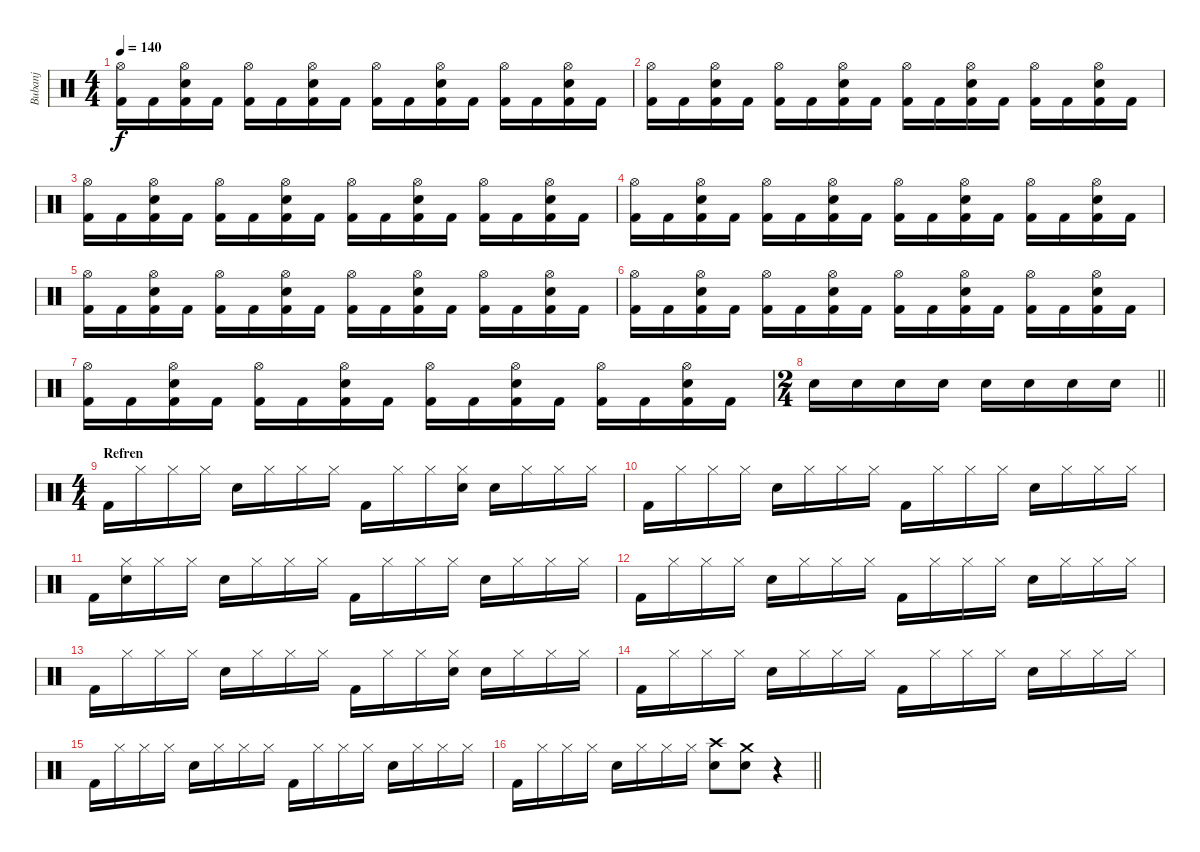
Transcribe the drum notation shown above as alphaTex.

\track ("Bubanj" "Bubanj") {instrument percussion}
\staff {score}
\articulation defaults
\ts (4 4)
\tempo 140
\clef neutral
\ks c
("Kick (hit) 2" "Hi-Hat (open)").16{dy f} "Kick (hit) 2".16 ("Kick (hit) 2" "Snare (hit) 2" "Hi-Hat (open)").16 "Kick (hit) 2".16 ("Kick (hit) 2" "Hi-Hat (open)").16 "Kick (hit) 2".16 ("Kick (hit) 2" "Snare (hit) 2" "Hi-Hat (open)").16 "Kick (hit) 2".16 ("Kick (hit) 2" "Hi-Hat (open)").16 "Kick (hit) 2".16 ("Kick (hit) 2" "Snare (hit) 2" "Hi-Hat (open)").16 "Kick (hit) 2".16 ("Kick (hit) 2" "Hi-Hat (open)").16 "Kick (hit) 2".16 ("Kick (hit) 2" "Snare (hit) 2" "Hi-Hat (open)").16 "Kick (hit) 2".16 |
("Kick (hit) 2" "Hi-Hat (open)").16 "Kick (hit) 2".16 ("Kick (hit) 2" "Snare (hit) 2" "Hi-Hat (open)").16 "Kick (hit) 2".16 ("Kick (hit) 2" "Hi-Hat (open)").16 "Kick (hit) 2".16 ("Kick (hit) 2" "Snare (hit) 2" "Hi-Hat (open)").16 "Kick (hit) 2".16 ("Kick (hit) 2" "Hi-Hat (open)").16 "Kick (hit) 2".16 ("Kick (hit) 2" "Snare (hit) 2" "Hi-Hat (open)").16 "Kick (hit) 2".16 ("Kick (hit) 2" "Hi-Hat (open)").16 "Kick (hit) 2".16 ("Kick (hit) 2" "Snare (hit) 2" "Hi-Hat (open)").16 "Kick (hit) 2".16 |
("Kick (hit) 2" "Hi-Hat (open)").16 "Kick (hit) 2".16 ("Kick (hit) 2" "Snare (hit) 2" "Hi-Hat (open)").16 "Kick (hit) 2".16 ("Kick (hit) 2" "Hi-Hat (open)").16 "Kick (hit) 2".16 ("Kick (hit) 2" "Snare (hit) 2" "Hi-Hat (open)").16 "Kick (hit) 2".16 ("Kick (hit) 2" "Hi-Hat (open)").16 "Kick (hit) 2".16 ("Kick (hit) 2" "Snare (hit) 2" "Hi-Hat (open)").16 "Kick (hit) 2".16 ("Kick (hit) 2" "Hi-Hat (open)").16 "Kick (hit) 2".16 ("Kick (hit) 2" "Snare (hit) 2" "Hi-Hat (open)").16 "Kick (hit) 2".16 |
("Kick (hit) 2" "Hi-Hat (open)").16 "Kick (hit) 2".16 ("Kick (hit) 2" "Snare (hit) 2" "Hi-Hat (open)").16 "Kick (hit) 2".16 ("Kick (hit) 2" "Hi-Hat (open)").16 "Kick (hit) 2".16 ("Kick (hit) 2" "Snare (hit) 2" "Hi-Hat (open)").16 "Kick (hit) 2".16 ("Kick (hit) 2" "Hi-Hat (open)").16 "Kick (hit) 2".16 ("Kick (hit) 2" "Snare (hit) 2" "Hi-Hat (open)").16 "Kick (hit) 2".16 ("Kick (hit) 2" "Hi-Hat (open)").16 "Kick (hit) 2".16 ("Kick (hit) 2" "Snare (hit) 2" "Hi-Hat (open)").16 "Kick (hit) 2".16 |
("Kick (hit) 2" "Hi-Hat (open)").16 "Kick (hit) 2".16 ("Kick (hit) 2" "Snare (hit) 2" "Hi-Hat (open)").16 "Kick (hit) 2".16 ("Kick (hit) 2" "Hi-Hat (open)").16 "Kick (hit) 2".16 ("Kick (hit) 2" "Snare (hit) 2" "Hi-Hat (open)").16 "Kick (hit) 2".16 ("Kick (hit) 2" "Hi-Hat (open)").16 "Kick (hit) 2".16 ("Kick (hit) 2" "Snare (hit) 2" "Hi-Hat (open)").16 "Kick (hit) 2".16 ("Kick (hit) 2" "Hi-Hat (open)").16 "Kick (hit) 2".16 ("Kick (hit) 2" "Snare (hit) 2" "Hi-Hat (open)").16 "Kick (hit) 2".16 |
("Kick (hit) 2" "Hi-Hat (open)").16 "Kick (hit) 2".16 ("Kick (hit) 2" "Snare (hit) 2" "Hi-Hat (open)").16 "Kick (hit) 2".16 ("Kick (hit) 2" "Hi-Hat (open)").16 "Kick (hit) 2".16 ("Kick (hit) 2" "Snare (hit) 2" "Hi-Hat (open)").16 "Kick (hit) 2".16 ("Kick (hit) 2" "Hi-Hat (open)").16 "Kick (hit) 2".16 ("Kick (hit) 2" "Snare (hit) 2" "Hi-Hat (open)").16 "Kick (hit) 2".16 ("Kick (hit) 2" "Hi-Hat (open)").16 "Kick (hit) 2".16 ("Kick (hit) 2" "Snare (hit) 2" "Hi-Hat (open)").16 "Kick (hit) 2".16 |
("Kick (hit) 2" "Hi-Hat (open)").16 "Kick (hit) 2".16 ("Kick (hit) 2" "Snare (hit) 2" "Hi-Hat (open)").16 "Kick (hit) 2".16 ("Kick (hit) 2" "Hi-Hat (open)").16 "Kick (hit) 2".16 ("Kick (hit) 2" "Snare (hit) 2" "Hi-Hat (open)").16 "Kick (hit) 2".16 ("Kick (hit) 2" "Hi-Hat (open)").16 "Kick (hit) 2".16 ("Kick (hit) 2" "Snare (hit) 2" "Hi-Hat (open)").16 "Kick (hit) 2".16 ("Kick (hit) 2" "Hi-Hat (open)").16 "Kick (hit) 2".16 ("Kick (hit) 2" "Snare (hit) 2" "Hi-Hat (open)").16 "Kick (hit) 2".16 |
\ts (2 4)
\barLineRight lightlight "Snare (hit) 2".16 "Snare (hit) 2".16 "Snare (hit) 2".16 "Snare (hit) 2".16 "Snare (hit) 2".16 "Snare (hit) 2".16 "Snare (hit) 2".16 "Snare (hit) 2".16
|
\ts (4 4)
\section ("" "Refren")
"Kick (hit) 2".16 "Hi-Hat (closed)".16 "Hi-Hat (closed)".16 "Hi-Hat (closed)".16 "Snare (hit) 2".16 "Hi-Hat (closed)".16 "Hi-Hat (closed)".16 "Hi-Hat (closed)".16 "Kick (hit) 2".16 "Hi-Hat (closed)".16 "Hi-Hat (closed)".16 ("Snare (hit) 2" "Hi-Hat (closed)").16 "Snare (hit) 2".16 "Hi-Hat (closed)".16 "Hi-Hat (closed)".16 "Hi-Hat (closed)".16 |
"Kick (hit) 2".16 "Hi-Hat (closed)".16 "Hi-Hat (closed)".16 "Hi-Hat (closed)".16 "Snare (hit) 2".16 "Hi-Hat (closed)".16 "Hi-Hat (closed)".16 "Hi-Hat (closed)".16 "Kick (hit) 2".16 "Hi-Hat (closed)".16 "Hi-Hat (closed)".16 "Hi-Hat (closed)".16 "Snare (hit) 2".16 "Hi-Hat (closed)".16 "Hi-Hat (closed)".16 "Hi-Hat (closed)".16 |
"Kick (hit) 2".16 ("Snare (hit) 2" "Hi-Hat (closed)").16 "Hi-Hat (closed)".16 "Hi-Hat (closed)".16 "Snare (hit) 2".16 "Hi-Hat (closed)".16 "Hi-Hat (closed)".16 "Hi-Hat (closed)".16 "Kick (hit) 2".16 "Hi-Hat (closed)".16 "Hi-Hat (closed)".16 "Hi-Hat (closed)".16 "Snare (hit) 2".16 "Hi-Hat (closed)".16 "Hi-Hat (closed)".16 "Hi-Hat (closed)".16 |
"Kick (hit) 2".16 "Hi-Hat (closed)".16 "Hi-Hat (closed)".16 "Hi-Hat (closed)".16 "Snare (hit) 2".16 "Hi-Hat (closed)".16 "Hi-Hat (closed)".16 "Hi-Hat (closed)".16 "Kick (hit) 2".16 "Hi-Hat (closed)".16 "Hi-Hat (closed)".16 "Hi-Hat (closed)".16 "Snare (hit) 2".16 "Hi-Hat (closed)".16 "Hi-Hat (closed)".16 "Hi-Hat (closed)".16 |
"Kick (hit) 2".16 "Hi-Hat (closed)".16 "Hi-Hat (closed)".16 "Hi-Hat (closed)".16 "Snare (hit) 2".16 "Hi-Hat (closed)".16 "Hi-Hat (closed)".16 "Hi-Hat (closed)".16 "Kick (hit) 2".16 "Hi-Hat (closed)".16 "Hi-Hat (closed)".16 ("Snare (hit) 2" "Hi-Hat (closed)").16 "Snare (hit) 2".16 "Hi-Hat (closed)".16 "Hi-Hat (closed)".16 "Hi-Hat (closed)".16 |
"Kick (hit) 2".16 "Hi-Hat (closed)".16 "Hi-Hat (closed)".16 "Hi-Hat (closed)".16 "Snare (hit) 2".16 "Hi-Hat (closed)".16 "Hi-Hat (closed)".16 "Hi-Hat (closed)".16 "Kick (hit) 2".16 "Hi-Hat (closed)".16 "Hi-Hat (closed)".16 "Hi-Hat (closed)".16 "Snare (hit) 2".16 "Hi-Hat (closed)".16 "Hi-Hat (closed)".16 "Hi-Hat (closed)".16 |
"Kick (hit) 2".16 "Hi-Hat (closed)".16 "Hi-Hat (closed)".16 "Hi-Hat (closed)".16 "Snare (hit) 2".16 "Hi-Hat (closed)".16 "Hi-Hat (closed)".16 "Hi-Hat (closed)".16 "Kick (hit) 2".16 "Hi-Hat (closed)".16 "Hi-Hat (closed)".16 "Hi-Hat (closed)".16 "Snare (hit) 2".16 "Hi-Hat (closed)".16 "Hi-Hat (closed)".16 "Hi-Hat (closed)".16 |
\barLineRight lightlight "Kick (hit) 2".16 "Hi-Hat (closed)".16 "Hi-Hat (closed)".16 "Hi-Hat (closed)".16 "Snare (hit) 2".16 "Hi-Hat (closed)".16 "Hi-Hat (closed)".16 "Hi-Hat (closed)".16
("Snare (hit) 2" "Crash high (hit)").8 ("Snare (hit) 2" "Crash medium (hit)").8 r.4
